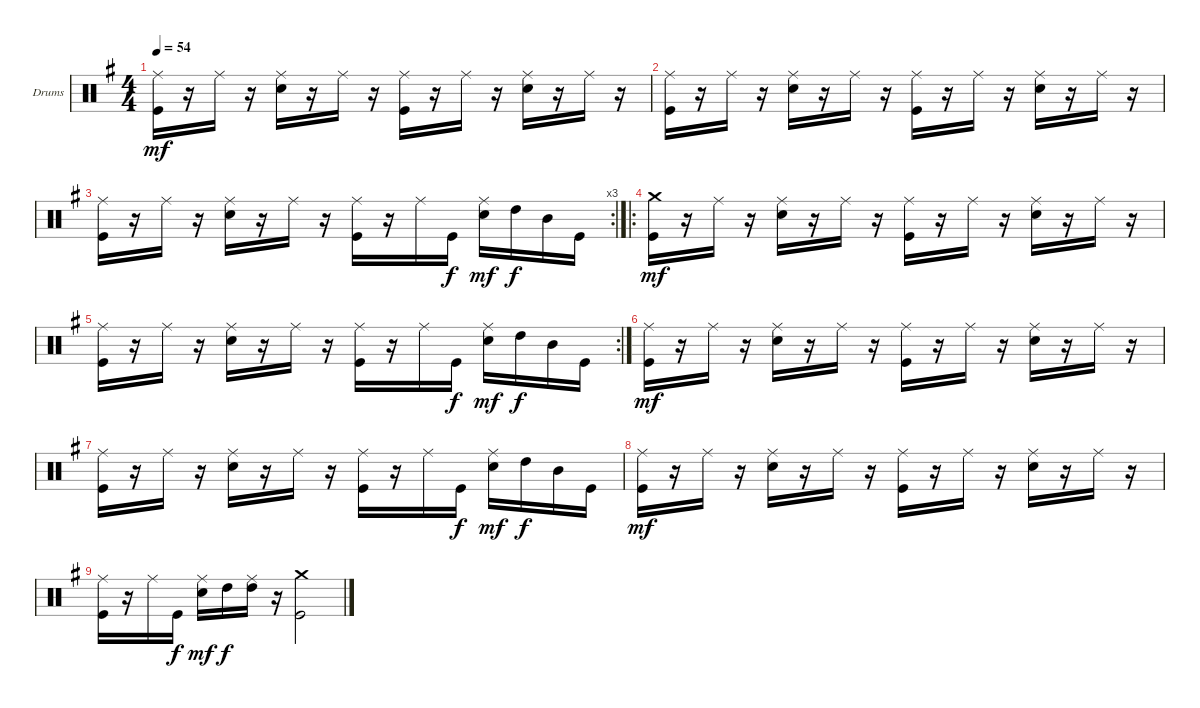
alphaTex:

\bracketExtendMode groupsimilarinstruments
\firstSystemTrackNameOrientation horizontal
\otherSystemsTrackNameOrientation horizontal
\track ("Drumkit" "Drums") {instrument percussion}
\staff {score}
\articulation defaults
\ts (4 4)
\tempo 54
\clef neutral
\scale
1.04288
\ks g
("Ride (middle)" "Kick (hit)").16{dy mf} r.16 "Ride (middle)".16 r.16 ("Ride (middle)" "Snare (hit) 2").16 r.16 "Ride (middle)".16 r.16 ("Ride (middle)" "Kick (hit)").16 r.16 "Ride (middle)".16 r.16 ("Ride (middle)" "Snare (hit) 2").16 r.16 "Ride (middle)".16 r.16 |
\scale
0.957125 ("Ride (middle)" "Kick (hit)").16 r.16 "Ride (middle)".16 r.16 ("Ride (middle)" "Snare (hit) 2").16 r.16 "Ride (middle)".16 r.16 ("Ride (middle)" "Kick (hit)").16 r.16 "Ride (middle)".16 r.16 ("Ride (middle)" "Snare (hit) 2").16 r.16 "Ride (middle)".16 r.16 |
\rc 3
\scale
1.04288 ("Ride (middle)" "Kick (hit)").16 r.16 "Ride (middle)".16 r.16 ("Ride (middle)" "Snare (hit) 2").16 r.16 "Ride (middle)".16 r.16 ("Ride (middle)" "Kick (hit)").16 r.16 "Ride (middle)".16 "Kick (hit)".16{dy f} ("Ride (middle)" "Snare (hit) 2").16{dy mf} "High Tom (hit)".16{dy f} "Mid Tom (hit)".16 "Kick (hit)".16 |
\ro
\scale
0.957125 ("Crash medium (hit)" "Kick (hit)").16{dy mf} r.16 "Ride (middle)".16 r.16 ("Ride (middle)" "Snare (hit) 2").16 r.16 "Ride (middle)".16 r.16 ("Ride (middle)" "Kick (hit)").16 r.16 "Ride (middle)".16 r.16 ("Ride (middle)" "Snare (hit) 2").16 r.16 "Ride (middle)".16 r.16 |
\rc 2
\scale
1.04288 ("Ride (middle)" "Kick (hit)").16 r.16 "Ride (middle)".16 r.16 ("Ride (middle)" "Snare (hit) 2").16 r.16 "Ride (middle)".16 r.16 ("Ride (middle)" "Kick (hit)").16 r.16 "Ride (middle)".16 "Kick (hit)".16{dy f} ("Ride (middle)" "Snare (hit) 2").16{dy mf} "High Tom (hit)".16{dy f} "Mid Tom (hit)".16 "Kick (hit)".16 |
\scale
0.957125 ("Ride (middle)" "Kick (hit)").16{dy mf} r.16 "Ride (middle)".16 r.16 ("Ride (middle)" "Snare (hit) 2").16 r.16 "Ride (middle)".16 r.16 ("Ride (middle)" "Kick (hit)").16 r.16 "Ride (middle)".16 r.16 ("Ride (middle)" "Snare (hit) 2").16 r.16 "Ride (middle)".16 r.16 |
\scale
1.04288 ("Ride (middle)" "Kick (hit)").16 r.16 "Ride (middle)".16 r.16 ("Ride (middle)" "Snare (hit) 2").16 r.16 "Ride (middle)".16 r.16 ("Ride (middle)" "Kick (hit)").16 r.16 "Ride (middle)".16 "Kick (hit)".16{dy f} ("Ride (middle)" "Snare (hit) 2").16{dy mf} "High Tom (hit)".16{dy f} "Mid Tom (hit)".16 "Kick (hit)".16 |
\scale
0.957125 ("Ride (middle)" "Kick (hit)").16{dy mf} r.16 "Ride (middle)".16 r.16 ("Ride (middle)" "Snare (hit) 2").16 r.16 "Ride (middle)".16 r.16 ("Ride (middle)" "Kick (hit)").16 r.16 "Ride (middle)".16 r.16 ("Ride (middle)" "Snare (hit) 2").16 r.16 "Ride (middle)".16 r.16 |
\scale
1.04288 ("Ride (middle)" "Kick (hit)").16 r.16 "Ride (middle)".16 "Kick (hit)".16{dy f} ("Ride (middle)" "Snare (hit) 2").16{dy mf} "High Tom (hit)".16{dy f} ("Ride (middle)" "High Tom (hit)").16 r.16 ("Crash medium (hit)" "Kick (hit)").2 |
\scale
0.957125
